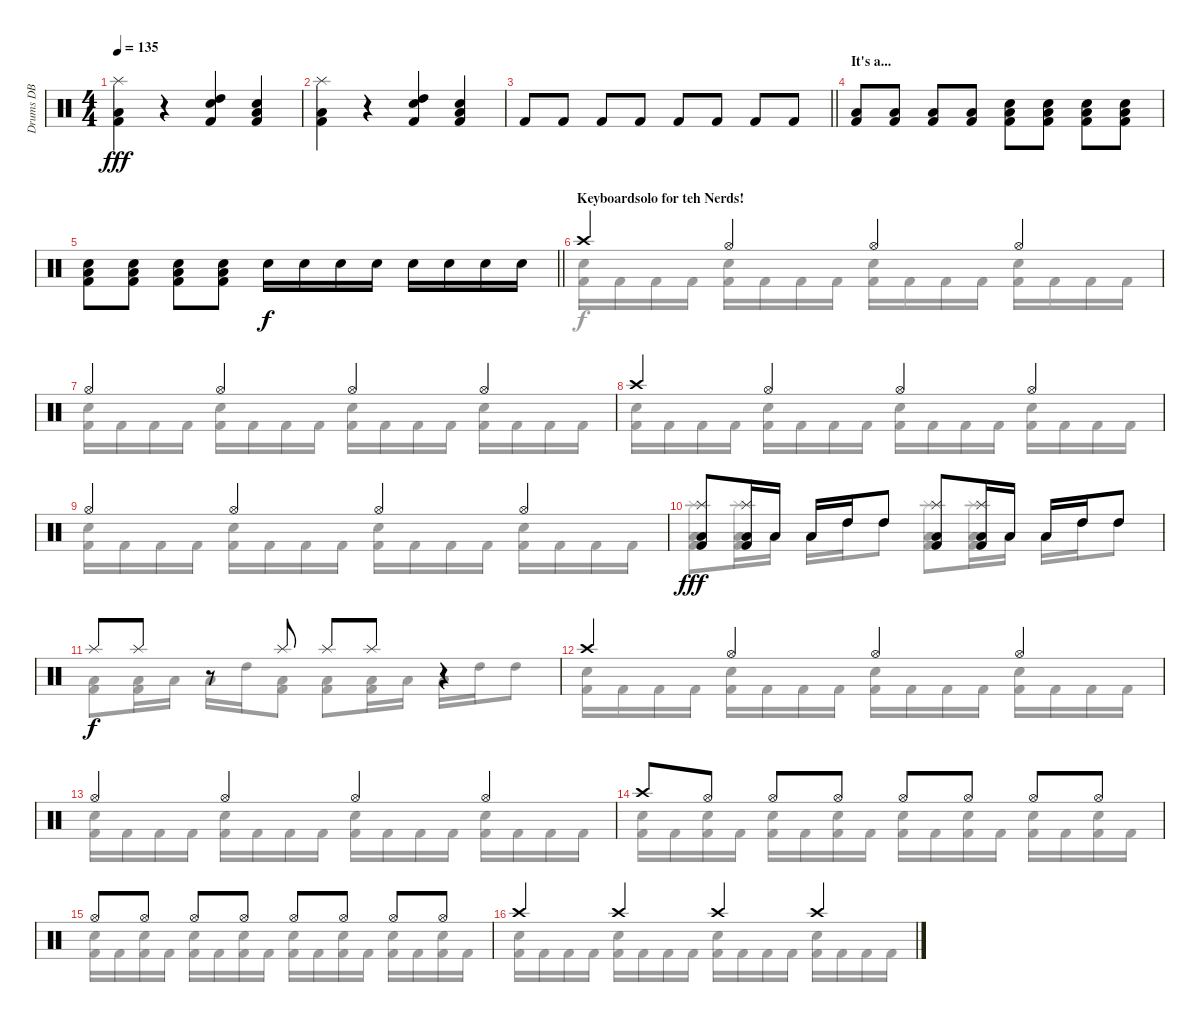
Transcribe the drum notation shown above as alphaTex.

\track ("Drums DB" "Drums DB") {instrument percussion}
\staff {score}
\articulation defaults
\voice
\ts (4 4)
\tempo 135
\clef neutral
\ks c
("Splash (hit)" "Low Floor Tom (hit)" "Kick (hit) 2").4{dy fff} r.4 ("Snare (hit) 2" "High Tom (hit)" "Kick (hit) 2").4 ("Snare (hit) 2" "Low Tom (hit)" "Kick (hit) 2").4 |
("Splash (hit)" "Low Floor Tom (hit)" "Kick (hit) 2").4 r.4 ("Snare (hit) 2" "High Tom (hit)" "Kick (hit) 2").4 ("Snare (hit) 2" "Low Tom (hit)" "Kick (hit) 2").4 |
\barLineRight lightlight "Kick (hit) 2".8 "Kick (hit) 2".8 "Kick (hit) 2".8 "Kick (hit) 2".8 "Kick (hit) 2".8 "Kick (hit) 2".8 "Kick (hit) 2".8 "Kick (hit) 2".8
|
\section ("" "It's a...")
\ks aminor
("Low Floor Tom (hit)" "Kick (hit) 2").8 ("Low Floor Tom (hit)" "Kick (hit) 2").8 ("Low Floor Tom (hit)" "Kick (hit) 2").8 ("Low Floor Tom (hit)" "Kick (hit) 2").8 ("Snare (hit) 2" "Low Floor Tom (hit)" "Kick (hit) 2").8 ("Snare (hit) 2" "Low Floor Tom (hit)" "Kick (hit) 2").8 ("Snare (hit) 2" "Low Floor Tom (hit)" "Kick (hit) 2").8 ("Snare (hit) 2" "Low Floor Tom (hit)" "Kick (hit) 2").8 |
\barLineRight lightlight
("Snare (hit) 2" "Low Floor Tom (hit)" "Kick (hit) 2").8 ("Snare (hit) 2" "Low Floor Tom (hit)" "Kick (hit) 2").8 ("Snare (hit) 2" "Low Floor Tom (hit)" "Kick (hit) 2").8 ("Snare (hit) 2" "Low Floor Tom (hit)" "Kick (hit) 2").8 "Snare (hit) 2".16{dy f} "Snare (hit) 2".16 "Snare (hit) 2".16 "Snare (hit) 2".16 "Snare (hit) 2".16 "Snare (hit) 2".16 "Snare (hit) 2".16 "Snare (hit) 2".16 |
\section ("" "Keyboardsolo for teh Nerds!")
"Crash high (hit)".4 "Hi-Hat (open)".4 "Hi-Hat (open)".4 "Hi-Hat (open)".4 |
"Hi-Hat (open)".4{beam merge} "Hi-Hat (open)".4 "Hi-Hat (open)".4 "Hi-Hat (open)".4 |
"Crash high (hit)".4 "Hi-Hat (open)".4 "Hi-Hat (open)".4 "Hi-Hat (open)".4 |
"Hi-Hat (open)".4{beam merge} "Hi-Hat (open)".4 "Hi-Hat (open)".4 "Hi-Hat (open)".4 |
("Splash (hit)" "Low Floor Tom (hit)" "Kick (hit) 2").8{dy fff} ("Splash (hit)" "Low Floor Tom (hit)" "Kick (hit) 2").16 "Low Tom (hit)".16 "Low Tom (hit)".16 "High Tom (hit)".16 "High Tom (hit)".8 ("Splash (hit)" "Low Floor Tom (hit)" "Kick (hit) 2").8 ("Splash (hit)" "Low Floor Tom (hit)" "Kick (hit) 2").16 "Low Tom (hit)".16 "Low Tom (hit)".16 "High Tom (hit)".16 "High Tom (hit)".8 |
"Splash (hit)".8{dy f} "Splash (hit)".8 r.8 "Splash (hit)".8 "Splash (hit)".8{beam merge} "Splash (hit)".8 r.4 |
"Crash high (hit)".4 "Hi-Hat (open)".4 "Hi-Hat (open)".4 "Hi-Hat (open)".4 |
"Hi-Hat (open)".4{beam merge} "Hi-Hat (open)".4 "Hi-Hat (open)".4 "Hi-Hat (open)".4 |
"Crash high (hit)".8 "Hi-Hat (open)".8 "Hi-Hat (open)".8 "Hi-Hat (open)".8 "Hi-Hat (open)".8 "Hi-Hat (open)".8 "Hi-Hat (open)".8 "Hi-Hat (open)".8 |
"Hi-Hat (open)".8{beam merge} "Hi-Hat (open)".8 "Hi-Hat (open)".8 "Hi-Hat (open)".8 "Hi-Hat (open)".8 "Hi-Hat (open)".8 "Hi-Hat (open)".8{beam merge} "Hi-Hat (open)".8 |
"Crash high (hit)".4 "Crash high (hit)".4 "Crash high (hit)".4 "Crash high (hit)".4
\voice
\clef neutral
\ottava regular
\simile none
\ks c
|
|
\barLineRight lightlight
|
\ks aminor
|
\barLineRight lightlight
|
("Snare (hit) 2" "Kick (hit) 2").16 "Kick (hit) 2".16 "Kick (hit) 2".16 "Kick (hit) 2".16 ("Snare (hit) 2" "Kick (hit) 2").16 "Kick (hit) 2".16 "Kick (hit) 2".16 "Kick (hit) 2".16 ("Snare (hit) 2" "Kick (hit) 2").16 "Kick (hit) 2".16 "Kick (hit) 2".16 "Kick (hit) 2".16 ("Snare (hit) 2" "Kick (hit) 2").16 "Kick (hit) 2".16 "Kick (hit) 2".16 "Kick (hit) 2".16 |
("Snare (hit) 2" "Kick (hit) 2").16 "Kick (hit) 2".16 "Kick (hit) 2".16 "Kick (hit) 2".16 ("Snare (hit) 2" "Kick (hit) 2").16 "Kick (hit) 2".16 "Kick (hit) 2".16 "Kick (hit) 2".16 ("Snare (hit) 2" "Kick (hit) 2").16 "Kick (hit) 2".16 "Kick (hit) 2".16 "Kick (hit) 2".16 ("Snare (hit) 2" "Kick (hit) 2").16 "Kick (hit) 2".16 "Kick (hit) 2".16 "Kick (hit) 2".16 |
("Snare (hit) 2" "Kick (hit) 2").16 "Kick (hit) 2".16 "Kick (hit) 2".16 "Kick (hit) 2".16 ("Snare (hit) 2" "Kick (hit) 2").16 "Kick (hit) 2".16 "Kick (hit) 2".16 "Kick (hit) 2".16 ("Snare (hit) 2" "Kick (hit) 2").16 "Kick (hit) 2".16 "Kick (hit) 2".16 "Kick (hit) 2".16 ("Snare (hit) 2" "Kick (hit) 2").16 "Kick (hit) 2".16 "Kick (hit) 2".16 "Kick (hit) 2".16 |
("Snare (hit) 2" "Kick (hit) 2").16 "Kick (hit) 2".16 "Kick (hit) 2".16 "Kick (hit) 2".16 ("Snare (hit) 2" "Kick (hit) 2").16 "Kick (hit) 2".16 "Kick (hit) 2".16 "Kick (hit) 2".16 ("Snare (hit) 2" "Kick (hit) 2").16 "Kick (hit) 2".16 "Kick (hit) 2".16 "Kick (hit) 2".16 ("Snare (hit) 2" "Kick (hit) 2").16 "Kick (hit) 2".16 "Kick (hit) 2".16 "Kick (hit) 2".16 |
("Splash (hit)" "Low Floor Tom (hit)" "Kick (hit) 2").8 ("Splash (hit)" "Low Floor Tom (hit)" "Kick (hit) 2").16 "Low Tom (hit)".16 "Low Tom (hit)".16 "High Tom (hit)".16 "High Tom (hit)".8 ("Splash (hit)" "Low Floor Tom (hit)" "Kick (hit) 2").8 ("Splash (hit)" "Low Floor Tom (hit)" "Kick (hit) 2").16 "Low Tom (hit)".16 "Low Tom (hit)".16 "High Tom (hit)".16 "High Tom (hit)".8 |
("Low Floor Tom (hit)" "Kick (hit) 2").8 ("Low Floor Tom (hit)" "Kick (hit) 2").16 "Low Tom (hit)".16 "Low Tom (hit)".16 "High Tom (hit)".16 ("Low Floor Tom (hit)" "Kick (hit) 2").8 ("Low Floor Tom (hit)" "Kick (hit) 2").8 ("Low Floor Tom (hit)" "Kick (hit) 2").16 "Low Tom (hit)".16 "Low Tom (hit)".16 "High Tom (hit)".16 "High Tom (hit)".8 |
("Snare (hit) 2" "Kick (hit) 2").16 "Kick (hit) 2".16 "Kick (hit) 2".16 "Kick (hit) 2".16 ("Snare (hit) 2" "Kick (hit) 2").16 "Kick (hit) 2".16 "Kick (hit) 2".16 "Kick (hit) 2".16 ("Snare (hit) 2" "Kick (hit) 2").16 "Kick (hit) 2".16 "Kick (hit) 2".16 "Kick (hit) 2".16 ("Snare (hit) 2" "Kick (hit) 2").16 "Kick (hit) 2".16 "Kick (hit) 2".16 "Kick (hit) 2".16 |
("Snare (hit) 2" "Kick (hit) 2").16 "Kick (hit) 2".16 "Kick (hit) 2".16 "Kick (hit) 2".16 ("Snare (hit) 2" "Kick (hit) 2").16 "Kick (hit) 2".16 "Kick (hit) 2".16 "Kick (hit) 2".16 ("Snare (hit) 2" "Kick (hit) 2").16 "Kick (hit) 2".16 "Kick (hit) 2".16 "Kick (hit) 2".16 ("Snare (hit) 2" "Kick (hit) 2").16 "Kick (hit) 2".16 "Kick (hit) 2".16 "Kick (hit) 2".16 |
("Snare (hit) 2" "Kick (hit) 2").16 "Kick (hit) 2".16 ("Snare (hit) 2" "Kick (hit) 2").16 "Kick (hit) 2".16 ("Snare (hit) 2" "Kick (hit) 2").16 "Kick (hit) 2".16 ("Snare (hit) 2" "Kick (hit) 2").16 "Kick (hit) 2".16 ("Snare (hit) 2" "Kick (hit) 2").16 "Kick (hit) 2".16 ("Snare (hit) 2" "Kick (hit) 2").16 "Kick (hit) 2".16 ("Snare (hit) 2" "Kick (hit) 2").16 "Kick (hit) 2".16 ("Snare (hit) 2" "Kick (hit) 2").16 "Kick (hit) 2".16 |
("Snare (hit) 2" "Kick (hit) 2").16 "Kick (hit) 2".16 ("Snare (hit) 2" "Kick (hit) 2").16 "Kick (hit) 2".16 ("Snare (hit) 2" "Kick (hit) 2").16 "Kick (hit) 2".16 ("Snare (hit) 2" "Kick (hit) 2").16 "Kick (hit) 2".16 ("Snare (hit) 2" "Kick (hit) 2").16 "Kick (hit) 2".16 ("Snare (hit) 2" "Kick (hit) 2").16 "Kick (hit) 2".16 ("Snare (hit) 2" "Kick (hit) 2").16 "Kick (hit) 2".16 ("Snare (hit) 2" "Kick (hit) 2").16 "Kick (hit) 2".16 |
("Snare (hit) 2" "Kick (hit) 2").16 "Kick (hit) 2".16 "Kick (hit) 2".16 "Kick (hit) 2".16 ("Snare (hit) 2" "Kick (hit) 2").16 "Kick (hit) 2".16 "Kick (hit) 2".16 "Kick (hit) 2".16 ("Snare (hit) 2" "Kick (hit) 2").16 "Kick (hit) 2".16 "Kick (hit) 2".16 "Kick (hit) 2".16 ("Snare (hit) 2" "Kick (hit) 2").16 "Kick (hit) 2".16 "Kick (hit) 2".16 "Kick (hit) 2".16
